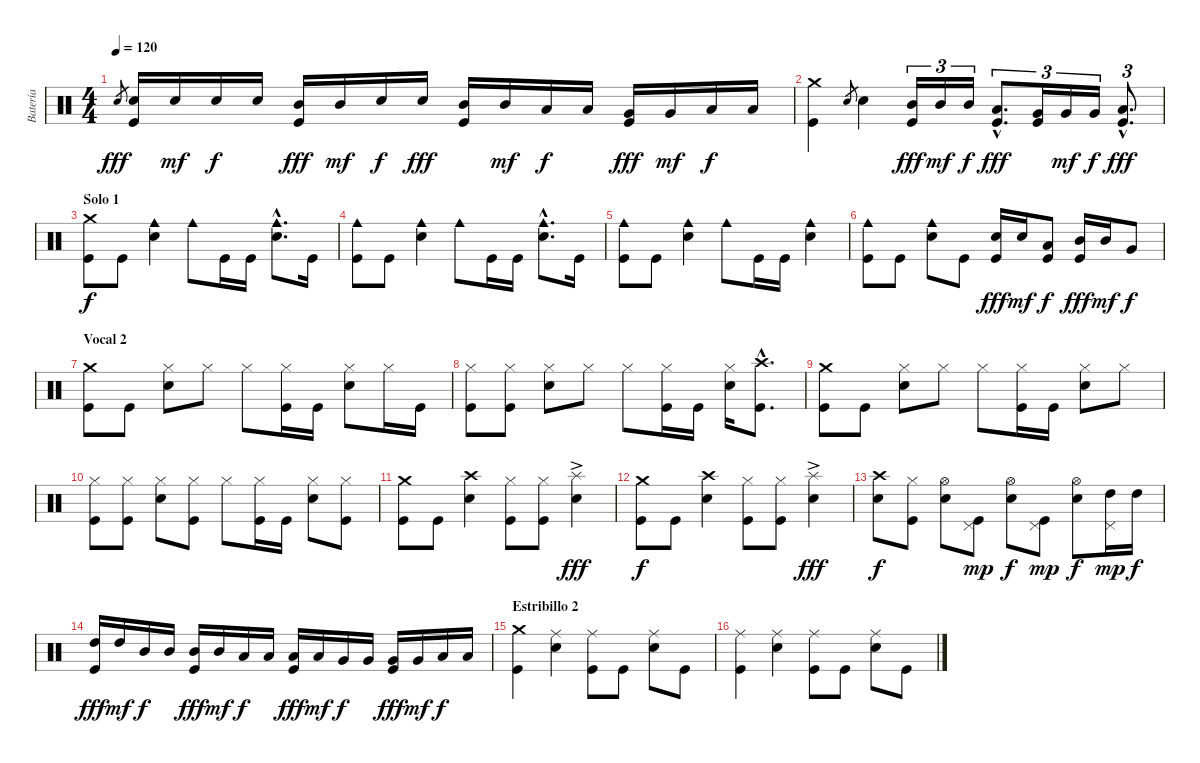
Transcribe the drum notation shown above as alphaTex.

\track ("Batería" "Batería") {instrument percussion}
\staff {score}
\articulation defaults
\ts (4 4)
\tempo 120
\clef neutral
\ks c "Electric Snare (hit)".8{gr dy fff}
("Kick (hit)" "Electric Snare (hit)").16 "Electric Snare (hit)".16{dy mf} "Electric Snare (hit)".16{dy f} "Electric Snare (hit)".16 ("Kick (hit)" "Mid Tom (hit)").16{dy fff} "Mid Tom (hit)".16{dy mf} "Electric Snare (hit)".16{dy f} "Electric Snare (hit)".16{dy fff} ("Kick (hit)" "Mid Tom (hit)").16 "Mid Tom (hit)".16{dy mf} "Low Tom (hit)".16{dy f} "Low Tom (hit)".16 ("Kick (hit)" "Very Low Tom (hit)").16{dy fff} "Very Low Tom (hit)".16{dy mf} "Low Floor Tom (hit)".16{dy f} "Low Floor Tom (hit)".16 |
("Kick (hit)" "Crash medium (hit)").4 "Electric Snare (hit)".8{gr} "Electric Snare (hit)".4 ("Kick (hit)" "Mid Tom (hit)").16{tu (3 2) dy fff} "Mid Tom (hit)".16{tu (3 2) dy mf} "Mid Tom (hit)".16{tu (3 2) dy f} ("Kick (hit)"{hac} "Low Tom (hit)"{hac}).8{d tu (3 2) dy fff} ("Kick (hit)" "Very Low Tom (hit)").16{tu (3 2)} "Very Low Tom (hit)".16{tu (3 2) dy mf} "Very Low Tom (hit)".16{tu (3 2) dy f} ("Kick (hit)"{hac} "Low Floor Tom (hit)"{hac}).8{d tu (3 2) dy fff} |
\section ("" "Solo 1")
("Kick (hit)" "Crash medium (hit)").8{dy f} "Kick (hit)".8 ("Electric Snare (hit)" "Cowbell medium (hit)").4 "Cowbell medium (hit)".8 "Kick (hit)".16 "Kick (hit)".16 ("Electric Snare (hit)"{hac} "Cowbell medium (hit)"{hac}).8{d} "Kick (hit)".16 |
("Kick (hit)" "Cowbell medium (hit)").8 "Kick (hit)".8 ("Electric Snare (hit)" "Cowbell medium (hit)").4 "Cowbell medium (hit)".8 "Kick (hit)".16 "Kick (hit)".16 ("Electric Snare (hit)"{hac} "Cowbell medium (hit)"{hac}).8{d} "Kick (hit)".16 |
("Kick (hit)" "Cowbell medium (hit)").8 "Kick (hit)".8 ("Electric Snare (hit)" "Cowbell medium (hit)").4 "Cowbell medium (hit)".8 "Kick (hit)".16 "Kick (hit)".16 ("Electric Snare (hit)" "Cowbell medium (hit)").4 |
("Kick (hit)" "Cowbell medium (hit)").8 "Kick (hit)".8 ("Electric Snare (hit)" "Cowbell medium (hit)").8 "Kick (hit)".8 ("Kick (hit)" "Electric Snare (hit)").16{dy fff} "Electric Snare (hit)".16{dy mf} ("Kick (hit)" "Low Tom (hit)").8{dy f} ("Kick (hit)" "Mid Tom (hit)").16{dy fff} "Mid Tom (hit)".16{dy mf} "Very Low Tom (hit)".8{dy f} |
\section ("" "Vocal 2")
("Kick (hit)" "Crash medium (hit)").8 "Kick (hit)".8 ("Electric Snare (hit)" "Hi-Hat (closed)").8 "Hi-Hat (closed)".8 "Hi-Hat (closed)".8 ("Kick (hit)" "Hi-Hat (closed)").16 "Kick (hit)".16 ("Electric Snare (hit)" "Hi-Hat (closed)").8 "Hi-Hat (closed)".16 "Kick (hit)".16 |
("Kick (hit)" "Hi-Hat (closed)").8 ("Kick (hit)" "Hi-Hat (closed)").8 ("Electric Snare (hit)" "Hi-Hat (closed)").8 "Hi-Hat (closed)".8 "Hi-Hat (closed)".8 ("Kick (hit)" "Hi-Hat (closed)").16 "Kick (hit)".16 ("Electric Snare (hit)" "Hi-Hat (closed)").16 ("Kick (hit)"{hac} "Crash high (hit)"{hac}).8{d} |
("Kick (hit)" "Crash medium (hit)").8 "Kick (hit)".8 ("Electric Snare (hit)" "Hi-Hat (closed)").8 "Hi-Hat (closed)".8 "Hi-Hat (closed)".8 ("Kick (hit)" "Hi-Hat (closed)").16 "Kick (hit)".16 ("Electric Snare (hit)" "Hi-Hat (closed)").8 "Hi-Hat (closed)".8 |
("Kick (hit)" "Hi-Hat (closed)").8 ("Kick (hit)" "Hi-Hat (closed)").8 ("Electric Snare (hit)" "Hi-Hat (closed)").8 ("Kick (hit)" "Hi-Hat (closed)").8 "Hi-Hat (closed)".8 ("Kick (hit)" "Hi-Hat (closed)").16 "Kick (hit)".16 ("Electric Snare (hit)" "Hi-Hat (closed)").8 ("Kick (hit)" "Hi-Hat (closed)").8 |
("Kick (hit)" "Crash medium (hit)").8 "Kick (hit)".8 ("Electric Snare (hit)" "Crash high (hit)").4 ("Kick (hit)" "Hi-Hat (closed)").8 ("Kick (hit)" "Hi-Hat (closed)").8 ("Electric Snare (hit)" "Splash (hit)"{ac}).4{dy fff} |
("Kick (hit)" "Crash medium (hit)").8{dy f} "Kick (hit)".8 ("Electric Snare (hit)" "Crash high (hit)").4 ("Kick (hit)" "Hi-Hat (closed)").8 ("Kick (hit)" "Hi-Hat (closed)").8 ("Electric Snare (hit)" "Splash (hit)"{ac}).4{dy fff} |
("Electric Snare (hit)" "Crash high (hit)").8{dy f} ("Kick (hit)" "Hi-Hat (closed)").8 ("Electric Snare (hit)" "Hi-Hat (open)").8 ("Kick (hit)" "Pedal Hi-Hat (hit)").8{dy mp} ("Electric Snare (hit)" "Hi-Hat (open)").8{dy f} ("Kick (hit)" "Pedal Hi-Hat (hit)").8{dy mp} ("Electric Snare (hit)" "Hi-Hat (open)").8{dy f} ("High Tom (hit)" "Pedal Hi-Hat (hit)").16{dy mp} "High Tom (hit)".16{dy f} |
("Kick (hit)" "High Tom (hit)").16{dy fff} "High Tom (hit)".16{dy mf} "Mid Tom (hit)".16{dy f} "Mid Tom (hit)".16 ("Kick (hit)" "Mid Tom (hit)").16{dy fff} "Mid Tom (hit)".16{dy mf} "Low Tom (hit)".16{dy f} "Low Tom (hit)".16 ("Kick (hit)" "Low Tom (hit)").16{dy fff} "Low Tom (hit)".16{dy mf} "Very Low Tom (hit)".16{dy f} "Very Low Tom (hit)".16 ("Kick (hit)" "Very Low Tom (hit)").16{dy fff} "Very Low Tom (hit)".16{dy mf} "Low Floor Tom (hit)".16{dy f} "Low Floor Tom (hit)".16 |
\section ("" "Estribillo 2")
("Kick (hit)" "Crash medium (hit)").4 ("Electric Snare (hit)" "Ride (middle)").4 ("Kick (hit)" "Ride (middle)").8 "Kick (hit)".8 ("Electric Snare (hit)" "Ride (middle)").8 "Kick (hit)".8 |
("Kick (hit)" "Ride (middle)").4 ("Electric Snare (hit)" "Ride (middle)").4 ("Kick (hit)" "Ride (middle)").8 "Kick (hit)".8 ("Electric Snare (hit)" "Ride (middle)").8 "Kick (hit)".8
